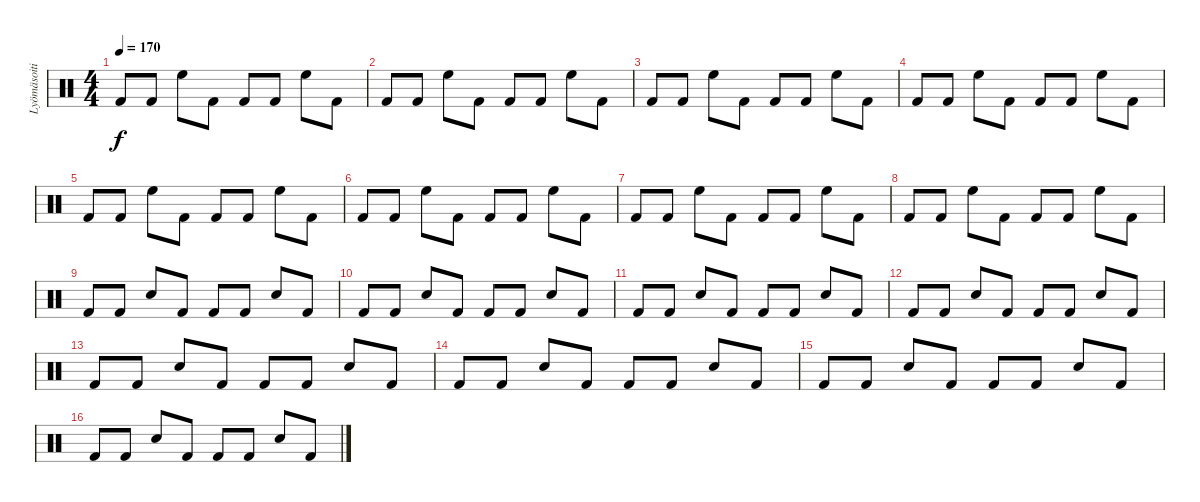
\track ("Lyömäsoitin" "Lyömäsoiti") {instrument percussion}
\staff {score}
\articulation defaults
\ts (4 4)
\tempo 170
\clef neutral
\ks c "Kick (hit) 2".8{dy f} "Kick (hit) 2".8 "High Floor Tom (hit)".8 "Kick (hit) 2".8 "Kick (hit) 2".8 "Kick (hit) 2".8 "High Floor Tom (hit)".8 "Kick (hit) 2".8
|
"Kick (hit) 2".8 "Kick (hit) 2".8 "High Floor Tom (hit)".8 "Kick (hit) 2".8 "Kick (hit) 2".8 "Kick (hit) 2".8 "High Floor Tom (hit)".8 "Kick (hit) 2".8 |
"Kick (hit) 2".8 "Kick (hit) 2".8 "High Floor Tom (hit)".8 "Kick (hit) 2".8 "Kick (hit) 2".8 "Kick (hit) 2".8 "High Floor Tom (hit)".8 "Kick (hit) 2".8 |
"Kick (hit) 2".8 "Kick (hit) 2".8 "High Floor Tom (hit)".8 "Kick (hit) 2".8 "Kick (hit) 2".8 "Kick (hit) 2".8 "High Floor Tom (hit)".8 "Kick (hit) 2".8 |
"Kick (hit) 2".8 "Kick (hit) 2".8 "High Floor Tom (hit)".8 "Kick (hit) 2".8 "Kick (hit) 2".8 "Kick (hit) 2".8 "High Floor Tom (hit)".8 "Kick (hit) 2".8 |
"Kick (hit) 2".8 "Kick (hit) 2".8 "High Floor Tom (hit)".8 "Kick (hit) 2".8 "Kick (hit) 2".8 "Kick (hit) 2".8 "High Floor Tom (hit)".8 "Kick (hit) 2".8 |
"Kick (hit) 2".8 "Kick (hit) 2".8 "High Floor Tom (hit)".8 "Kick (hit) 2".8 "Kick (hit) 2".8 "Kick (hit) 2".8 "High Floor Tom (hit)".8 "Kick (hit) 2".8 |
"Kick (hit) 2".8 "Kick (hit) 2".8 "High Floor Tom (hit)".8 "Kick (hit) 2".8 "Kick (hit) 2".8 "Kick (hit) 2".8 "High Floor Tom (hit)".8 "Kick (hit) 2".8 |
"Kick (hit) 2".8 "Kick (hit) 2".8 "Snare (hit) 2".8 "Kick (hit) 2".8 "Kick (hit) 2".8 "Kick (hit) 2".8 "Snare (hit) 2".8 "Kick (hit) 2".8 |
"Kick (hit) 2".8 "Kick (hit) 2".8 "Snare (hit) 2".8 "Kick (hit) 2".8 "Kick (hit) 2".8 "Kick (hit) 2".8 "Snare (hit) 2".8 "Kick (hit) 2".8 |
"Kick (hit) 2".8 "Kick (hit) 2".8 "Snare (hit) 2".8 "Kick (hit) 2".8 "Kick (hit) 2".8 "Kick (hit) 2".8 "Snare (hit) 2".8 "Kick (hit) 2".8 |
"Kick (hit) 2".8 "Kick (hit) 2".8 "Snare (hit) 2".8 "Kick (hit) 2".8 "Kick (hit) 2".8 "Kick (hit) 2".8 "Snare (hit) 2".8 "Kick (hit) 2".8 |
"Kick (hit) 2".8 "Kick (hit) 2".8 "Snare (hit) 2".8 "Kick (hit) 2".8 "Kick (hit) 2".8 "Kick (hit) 2".8 "Snare (hit) 2".8 "Kick (hit) 2".8 |
"Kick (hit) 2".8 "Kick (hit) 2".8 "Snare (hit) 2".8 "Kick (hit) 2".8 "Kick (hit) 2".8 "Kick (hit) 2".8 "Snare (hit) 2".8 "Kick (hit) 2".8 |
"Kick (hit) 2".8 "Kick (hit) 2".8 "Snare (hit) 2".8 "Kick (hit) 2".8 "Kick (hit) 2".8 "Kick (hit) 2".8 "Snare (hit) 2".8 "Kick (hit) 2".8 |
"Kick (hit) 2".8 "Kick (hit) 2".8 "Snare (hit) 2".8 "Kick (hit) 2".8 "Kick (hit) 2".8 "Kick (hit) 2".8 "Snare (hit) 2".8 "Kick (hit) 2".8
